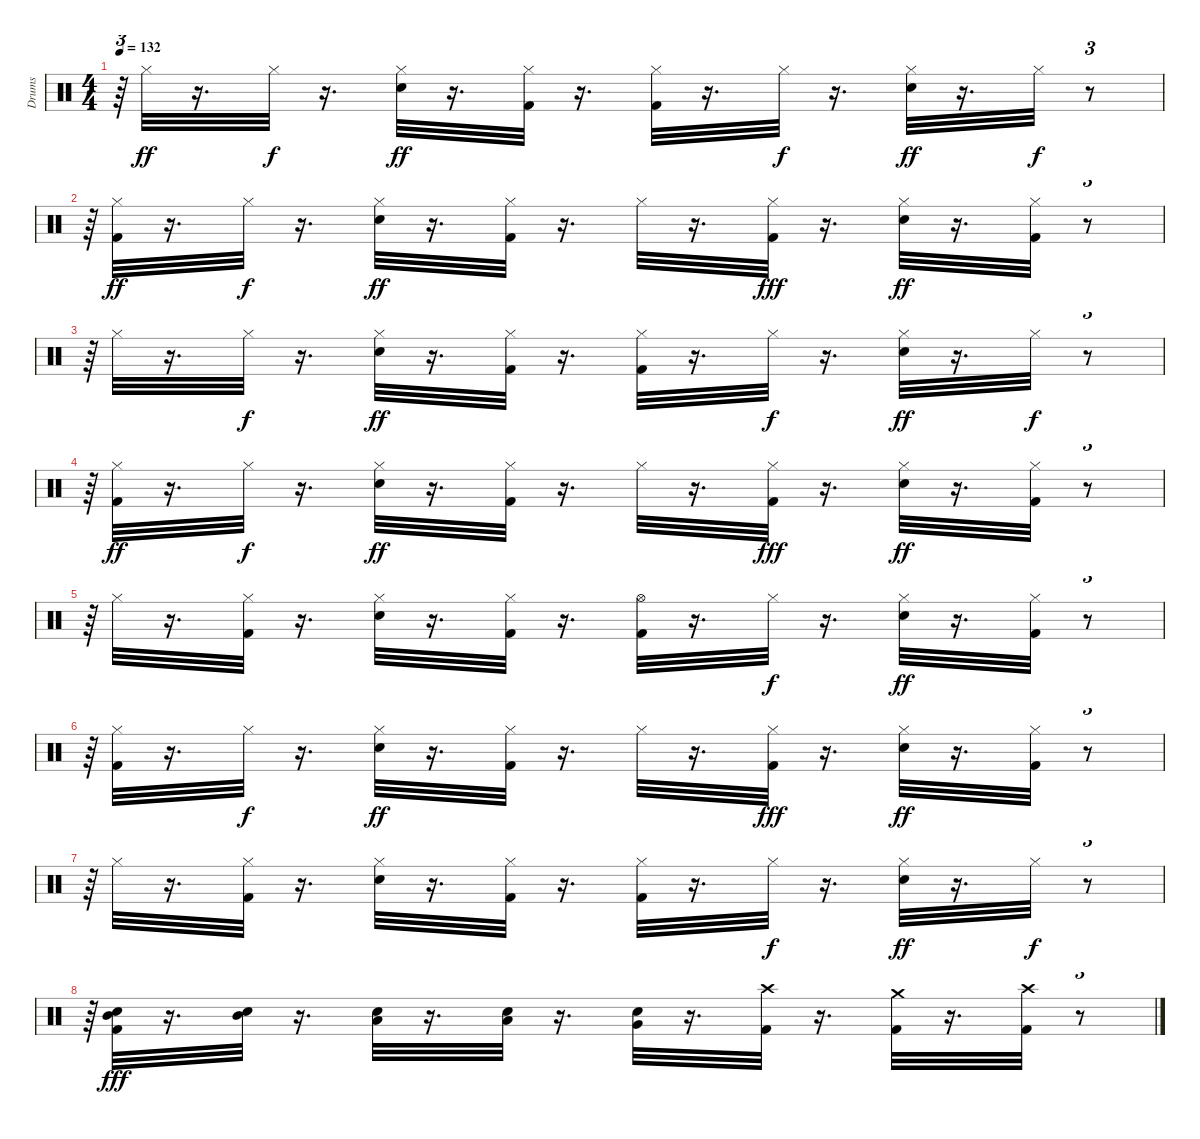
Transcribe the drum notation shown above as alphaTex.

\track ("Drums" "Drums") {instrument percussion}
\staff {score}
\articulation defaults
\ts (4 4)
\tempo 132
\clef neutral
\ks c
r.64{tu (3 2) dy ff} "Hi-Hat (closed)".32 r.16{d} "Hi-Hat (closed)".32{dy f} r.16{d} ("Snare (hit) 2" "Hi-Hat (closed)").32{dy ff} r.16{d} ("Kick (hit) 2" "Hi-Hat (closed)").32 r.16{d} ("Kick (hit) 2" "Hi-Hat (closed)").32 r.16{d} "Hi-Hat (closed)".32{dy f} r.16{d} ("Snare (hit) 2" "Hi-Hat (closed)").32{dy ff} r.16{d} "Hi-Hat (closed)".32{dy f} r.8{tu (3 2)} |
r.64{tu (3 2)} ("Kick (hit) 2" "Hi-Hat (closed)").32{dy ff} r.16{d} "Hi-Hat (closed)".32{dy f} r.16{d} ("Snare (hit) 2" "Hi-Hat (closed)").32{dy ff} r.16{d} ("Kick (hit) 2" "Hi-Hat (closed)").32 r.16{d} "Hi-Hat (closed)".32 r.16{d} ("Kick (hit) 2" "Hi-Hat (closed)").32{dy fff} r.16{d} ("Snare (hit) 2" "Hi-Hat (closed)").32{dy ff} r.16{d} ("Kick (hit) 2" "Hi-Hat (closed)").32 r.8{tu (3 2)} |
r.64{tu (3 2)} "Hi-Hat (closed)".32 r.16{d} "Hi-Hat (closed)".32{dy f} r.16{d} ("Snare (hit) 2" "Hi-Hat (closed)").32{dy ff} r.16{d} ("Kick (hit) 2" "Hi-Hat (closed)").32 r.16{d} ("Kick (hit) 2" "Hi-Hat (closed)").32 r.16{d} "Hi-Hat (closed)".32{dy f} r.16{d} ("Snare (hit) 2" "Hi-Hat (closed)").32{dy ff} r.16{d} "Hi-Hat (closed)".32{dy f} r.8{tu (3 2)} |
r.64{tu (3 2)} ("Kick (hit) 2" "Hi-Hat (closed)").32{dy ff} r.16{d} "Hi-Hat (closed)".32{dy f} r.16{d} ("Snare (hit) 2" "Hi-Hat (closed)").32{dy ff} r.16{d} ("Kick (hit) 2" "Hi-Hat (closed)").32 r.16{d} "Hi-Hat (closed)".32 r.16{d} ("Kick (hit) 2" "Hi-Hat (closed)").32{dy fff} r.16{d} ("Snare (hit) 2" "Hi-Hat (closed)").32{dy ff} r.16{d} ("Kick (hit) 2" "Hi-Hat (closed)").32 r.8{tu (3 2)} |
r.64{tu (3 2)} "Hi-Hat (closed)".32 r.16{d} ("Kick (hit) 2" "Hi-Hat (closed)").32 r.16{d} ("Snare (hit) 2" "Hi-Hat (closed)").32 r.16{d} ("Kick (hit) 2" "Hi-Hat (closed)").32 r.16{d} ("Kick (hit) 2" "Hi-Hat (open)").32 r.16{d} "Hi-Hat (closed)".32{dy f} r.16{d} ("Snare (hit) 2" "Hi-Hat (closed)").32{dy ff} r.16{d} ("Kick (hit) 2" "Hi-Hat (closed)").32 r.8{tu (3 2)} |
r.64{tu (3 2)} ("Kick (hit) 2" "Hi-Hat (closed)").32 r.16{d} "Hi-Hat (closed)".32{dy f} r.16{d} ("Snare (hit) 2" "Hi-Hat (closed)").32{dy ff} r.16{d} ("Kick (hit) 2" "Hi-Hat (closed)").32 r.16{d} "Hi-Hat (closed)".32 r.16{d} ("Kick (hit) 2" "Hi-Hat (closed)").32{dy fff} r.16{d} ("Snare (hit) 2" "Hi-Hat (closed)").32{dy ff} r.16{d} ("Kick (hit) 2" "Hi-Hat (closed)").32 r.8{tu (3 2)} |
r.64{tu (3 2)} "Hi-Hat (closed)".32 r.16{d} ("Kick (hit) 2" "Hi-Hat (closed)").32 r.16{d} ("Snare (hit) 2" "Hi-Hat (closed)").32 r.16{d} ("Kick (hit) 2" "Hi-Hat (closed)").32 r.16{d} ("Kick (hit) 2" "Hi-Hat (closed)").32 r.16{d} "Hi-Hat (closed)".32{dy f} r.16{d} ("Snare (hit) 2" "Hi-Hat (closed)").32{dy ff} r.16{d} "Hi-Hat (closed)".32{dy f} r.8{tu (3 2)} |
r.64{tu (3 2)} ("Kick (hit) 2" "Snare (hit) 2" "Mid Tom (hit)").32{dy fff} r.16{d} ("Snare (hit) 2" "Mid Tom (hit)").32 r.16{d} ("Snare (hit) 2" "Low Tom (hit)").32 r.16{d} ("Snare (hit) 2" "Low Tom (hit)").32 r.16{d} ("Snare (hit) 2" "Very Low Tom (hit)").32 r.16{d} ("Kick (hit) 2" "Crash high (hit)").32 r.16{d} ("Kick (hit) 2" "Crash medium (hit)").32 r.16{d} ("Kick (hit) 2" "Crash high (hit)").32 r.8{tu (3 2)}
